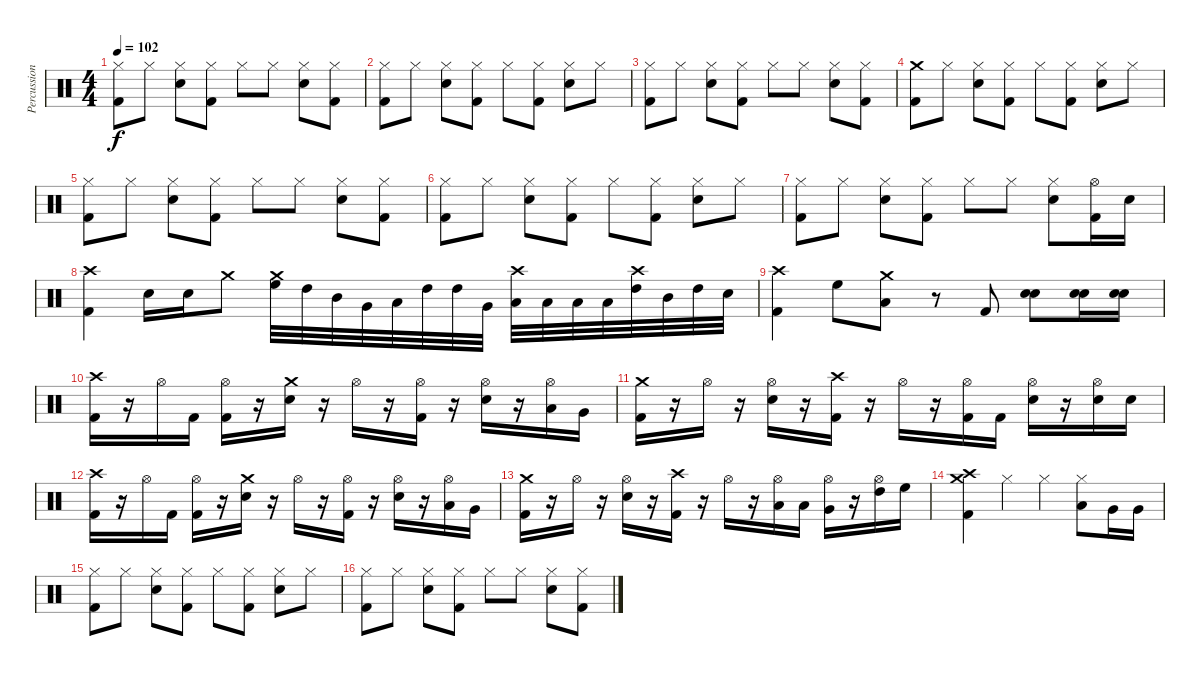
\track ("Percussion" "Percussion") {instrument percussion}
\staff {score}
\articulation defaults
\ts (4 4)
\tempo 102
\clef neutral
\ks c
("Hi-Hat (closed)" "Kick (hit) 2").8{dy f} "Hi-Hat (closed)".8 ("Hi-Hat (closed)" "Snare (hit) 2").8 ("Hi-Hat (closed)" "Kick (hit) 2").8 "Hi-Hat (closed)".8 "Hi-Hat (closed)".8 ("Hi-Hat (closed)" "Snare (hit) 2").8 ("Hi-Hat (closed)" "Kick (hit) 2").8 |
("Hi-Hat (closed)" "Kick (hit) 2").8 "Hi-Hat (closed)".8 ("Hi-Hat (closed)" "Snare (hit) 2").8 ("Hi-Hat (closed)" "Kick (hit) 2").8 "Hi-Hat (closed)".8 ("Hi-Hat (closed)" "Kick (hit) 2").8 ("Hi-Hat (closed)" "Snare (hit) 2").8 "Hi-Hat (closed)".8 |
("Hi-Hat (closed)" "Kick (hit) 2").8 "Hi-Hat (closed)".8 ("Hi-Hat (closed)" "Snare (hit) 2").8 ("Hi-Hat (closed)" "Kick (hit) 2").8 "Hi-Hat (closed)".8 "Hi-Hat (closed)".8 ("Hi-Hat (closed)" "Snare (hit) 2").8 ("Hi-Hat (closed)" "Kick (hit) 2").8 |
("Crash medium (hit)" "Kick (hit) 2").8 "Hi-Hat (closed)".8 ("Hi-Hat (closed)" "Snare (hit) 2").8 ("Hi-Hat (closed)" "Kick (hit) 2").8 "Hi-Hat (closed)".8 ("Hi-Hat (closed)" "Kick (hit) 2").8 ("Hi-Hat (closed)" "Snare (hit) 2").8 "Hi-Hat (closed)".8 |
("Hi-Hat (closed)" "Kick (hit) 2").8 "Hi-Hat (closed)".8 ("Hi-Hat (closed)" "Snare (hit) 2").8 ("Hi-Hat (closed)" "Kick (hit) 2").8 "Hi-Hat (closed)".8 "Hi-Hat (closed)".8 ("Hi-Hat (closed)" "Snare (hit) 2").8 ("Hi-Hat (closed)" "Kick (hit) 2").8 |
("Hi-Hat (closed)" "Kick (hit) 2").8 "Hi-Hat (closed)".8 ("Hi-Hat (closed)" "Snare (hit) 2").8 ("Hi-Hat (closed)" "Kick (hit) 2").8 "Hi-Hat (closed)".8 ("Hi-Hat (closed)" "Kick (hit) 2").8 ("Hi-Hat (closed)" "Snare (hit) 2").8 "Hi-Hat (closed)".8 |
("Hi-Hat (closed)" "Kick (hit) 2").8 "Hi-Hat (closed)".8 ("Hi-Hat (closed)" "Snare (hit) 2").8 ("Hi-Hat (closed)" "Kick (hit) 2").8 "Hi-Hat (closed)".8 "Hi-Hat (closed)".8 ("Hi-Hat (closed)" "Snare (hit) 2").8 ("Hi-Hat (open)" "Kick (hit) 2").16 "Snare (hit) 2".16 |
("Crash high (hit)" "Kick (hit) 2").4 "Snare (hit) 2".16 "Snare (hit) 2".16 "Crash medium (hit)".8 ("Crash medium (hit)" "High Floor Tom (hit)").32 "High Tom (hit)".32 "Mid Tom (hit)".32 "Very Low Tom (hit)".32 "Low Tom (hit)".32 "High Tom (hit)".32 "High Tom (hit)".32 "Very Low Tom (hit)".32 ("Crash high (hit)" "Low Tom (hit)").32 "Low Tom (hit)".32 "Low Tom (hit)".32 "Low Tom (hit)".32 ("Crash high (hit)" "High Tom (hit)").32 "Mid Tom (hit)".32 "High Tom (hit)".32 "Snare (hit) 2".32 |
("Crash high (hit)" "Kick (hit) 2").4 "High Floor Tom (hit)".8 ("Crash medium (hit)" "Low Tom (hit)").8 r.8 "Kick (hit) 2".8 ("Snare (hit) 2" "Snare (hit) 2").8 ("Snare (hit) 2" "Snare (hit) 2").16 ("Snare (hit) 2" "Snare (hit) 2").16 |
("Crash high (hit)" "Kick (hit) 2").16 r.16 "Hi-Hat (open)".16 "Kick (hit) 2".16 ("Hi-Hat (open)" "Kick (hit) 2").16 r.16 ("Crash medium (hit)" "Snare (hit) 2").16 r.16 "Hi-Hat (open)".16 r.16 ("Hi-Hat (open)" "Kick (hit) 2").16 r.16 ("Hi-Hat (open)" "Snare (hit) 2").16 r.16 ("Hi-Hat (open)" "Low Tom (hit)").16 "Very Low Tom (hit)".16 |
("Crash medium (hit)" "Kick (hit) 2").16 r.16 "Hi-Hat (open)".16 r.16 ("Hi-Hat (open)" "Snare (hit) 2").16 r.16 ("Crash high (hit)" "Kick (hit) 2").16 r.16 "Hi-Hat (open)".16 r.16 ("Hi-Hat (open)" "Kick (hit) 2").16 "Kick (hit) 2".16 ("Hi-Hat (open)" "Snare (hit) 2").16 r.16 ("Hi-Hat (open)" "Snare (hit) 2").16 "Snare (hit) 2".16 |
("Crash high (hit)" "Kick (hit) 2").16 r.16 "Hi-Hat (open)".16 "Kick (hit) 2".16 ("Hi-Hat (open)" "Kick (hit) 2").16 r.16 ("Crash medium (hit)" "Snare (hit) 2").16 r.16 "Hi-Hat (open)".16 r.16 ("Hi-Hat (open)" "Kick (hit) 2").16 r.16 ("Hi-Hat (open)" "Snare (hit) 2").16 r.16 ("Hi-Hat (open)" "Low Tom (hit)").16 "Very Low Tom (hit)".16 |
("Crash medium (hit)" "Kick (hit) 2").16 r.16 "Hi-Hat (open)".16 r.16 ("Hi-Hat (open)" "Snare (hit) 2").16 r.16 ("Crash high (hit)" "Kick (hit) 2").16 r.16 "Hi-Hat (open)".16 r.16 ("Hi-Hat (open)" "Low Tom (hit)").16 "Low Tom (hit)".16 ("Hi-Hat (open)" "Very Low Tom (hit)").16 r.16 ("Hi-Hat (open)" "High Tom (hit)").16 "High Floor Tom (hit)".16 |
("Crash high (hit)" "Crash medium (hit)" "Kick (hit) 2").4 "Hi-Hat (closed)".4 "Hi-Hat (closed)".4 ("Hi-Hat (closed)" "Low Tom (hit)").8 "Very Low Tom (hit)".16 "Very Low Tom (hit)".16 |
("Hi-Hat (closed)" "Kick (hit) 2").8 "Hi-Hat (closed)".8 ("Hi-Hat (closed)" "Snare (hit) 2").8 ("Hi-Hat (closed)" "Kick (hit) 2").8 "Hi-Hat (closed)".8 ("Hi-Hat (closed)" "Kick (hit) 2").8 ("Hi-Hat (closed)" "Snare (hit) 2").8 "Hi-Hat (closed)".8 |
("Hi-Hat (closed)" "Kick (hit) 2").8 "Hi-Hat (closed)".8 ("Hi-Hat (closed)" "Snare (hit) 2").8 ("Hi-Hat (closed)" "Kick (hit) 2").8 "Hi-Hat (closed)".8 "Hi-Hat (closed)".8 ("Hi-Hat (closed)" "Snare (hit) 2").8 ("Hi-Hat (closed)" "Kick (hit) 2").8
